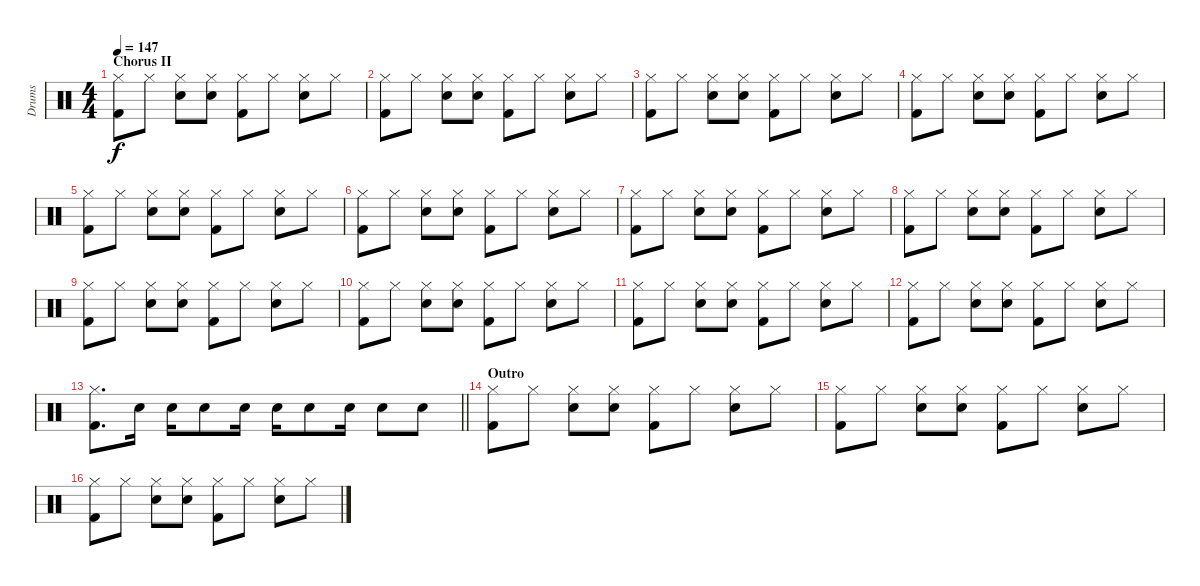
\track ("Drums" "Drums") {instrument percussion}
\staff {score}
\articulation defaults
\ts (4 4)
\section ("" "Chorus II")
\tempo 147
\clef neutral
\ks c
("Hi-Hat (closed)" "Kick (hit) 2").8{dy f} "Hi-Hat (closed)".8 ("Hi-Hat (closed)" "Snare (hit) 2").8 ("Hi-Hat (closed)" "Snare (hit) 2").8 ("Hi-Hat (closed)" "Kick (hit) 2").8 "Hi-Hat (closed)".8 ("Hi-Hat (closed)" "Snare (hit) 2").8 "Hi-Hat (closed)".8 |
("Hi-Hat (closed)" "Kick (hit) 2").8 "Hi-Hat (closed)".8 ("Hi-Hat (closed)" "Snare (hit) 2").8 ("Hi-Hat (closed)" "Snare (hit) 2").8 ("Hi-Hat (closed)" "Kick (hit) 2").8 "Hi-Hat (closed)".8 ("Hi-Hat (closed)" "Snare (hit) 2").8 "Hi-Hat (closed)".8 |
("Hi-Hat (closed)" "Kick (hit) 2").8 "Hi-Hat (closed)".8 ("Hi-Hat (closed)" "Snare (hit) 2").8 ("Hi-Hat (closed)" "Snare (hit) 2").8 ("Hi-Hat (closed)" "Kick (hit) 2").8 "Hi-Hat (closed)".8 ("Hi-Hat (closed)" "Snare (hit) 2").8 "Hi-Hat (closed)".8 |
("Hi-Hat (closed)" "Kick (hit) 2").8 "Hi-Hat (closed)".8 ("Hi-Hat (closed)" "Snare (hit) 2").8 ("Hi-Hat (closed)" "Snare (hit) 2").8 ("Hi-Hat (closed)" "Kick (hit) 2").8 "Hi-Hat (closed)".8 ("Hi-Hat (closed)" "Snare (hit) 2").8 "Hi-Hat (closed)".8 |
("Hi-Hat (closed)" "Kick (hit) 2").8 "Hi-Hat (closed)".8 ("Hi-Hat (closed)" "Snare (hit) 2").8 ("Hi-Hat (closed)" "Snare (hit) 2").8 ("Hi-Hat (closed)" "Kick (hit) 2").8 "Hi-Hat (closed)".8 ("Hi-Hat (closed)" "Snare (hit) 2").8 "Hi-Hat (closed)".8 |
("Hi-Hat (closed)" "Kick (hit) 2").8 "Hi-Hat (closed)".8 ("Hi-Hat (closed)" "Snare (hit) 2").8 ("Hi-Hat (closed)" "Snare (hit) 2").8 ("Hi-Hat (closed)" "Kick (hit) 2").8 "Hi-Hat (closed)".8 ("Hi-Hat (closed)" "Snare (hit) 2").8 "Hi-Hat (closed)".8 |
("Hi-Hat (closed)" "Kick (hit) 2").8 "Hi-Hat (closed)".8 ("Hi-Hat (closed)" "Snare (hit) 2").8 ("Hi-Hat (closed)" "Snare (hit) 2").8 ("Hi-Hat (closed)" "Kick (hit) 2").8 "Hi-Hat (closed)".8 ("Hi-Hat (closed)" "Snare (hit) 2").8 "Hi-Hat (closed)".8 |
("Hi-Hat (closed)" "Kick (hit) 2").8 "Hi-Hat (closed)".8 ("Hi-Hat (closed)" "Snare (hit) 2").8 ("Hi-Hat (closed)" "Snare (hit) 2").8 ("Hi-Hat (closed)" "Kick (hit) 2").8 "Hi-Hat (closed)".8 ("Hi-Hat (closed)" "Snare (hit) 2").8 "Hi-Hat (closed)".8 |
("Hi-Hat (closed)" "Kick (hit) 2").8 "Hi-Hat (closed)".8 ("Hi-Hat (closed)" "Snare (hit) 2").8 ("Hi-Hat (closed)" "Snare (hit) 2").8 ("Hi-Hat (closed)" "Kick (hit) 2").8 "Hi-Hat (closed)".8 ("Hi-Hat (closed)" "Snare (hit) 2").8 "Hi-Hat (closed)".8 |
("Hi-Hat (closed)" "Kick (hit) 2").8 "Hi-Hat (closed)".8 ("Hi-Hat (closed)" "Snare (hit) 2").8 ("Hi-Hat (closed)" "Snare (hit) 2").8 ("Hi-Hat (closed)" "Kick (hit) 2").8 "Hi-Hat (closed)".8 ("Hi-Hat (closed)" "Snare (hit) 2").8 "Hi-Hat (closed)".8 |
("Hi-Hat (closed)" "Kick (hit) 2").8 "Hi-Hat (closed)".8 ("Hi-Hat (closed)" "Snare (hit) 2").8 ("Hi-Hat (closed)" "Snare (hit) 2").8 ("Hi-Hat (closed)" "Kick (hit) 2").8 "Hi-Hat (closed)".8 ("Hi-Hat (closed)" "Snare (hit) 2").8 "Hi-Hat (closed)".8 |
("Hi-Hat (closed)" "Kick (hit) 2").8 "Hi-Hat (closed)".8 ("Hi-Hat (closed)" "Snare (hit) 2").8 ("Hi-Hat (closed)" "Snare (hit) 2").8 ("Hi-Hat (closed)" "Kick (hit) 2").8 "Hi-Hat (closed)".8 ("Hi-Hat (closed)" "Snare (hit) 2").8 "Hi-Hat (closed)".8 |
\barLineRight lightlight
("Hi-Hat (closed)" "Kick (hit) 2").8{d} "Snare (hit) 2".16 "Snare (hit) 2".16 "Snare (hit) 2".8 "Snare (hit) 2".16 "Snare (hit) 2".16 "Snare (hit) 2".8 "Snare (hit) 2".16 "Snare (hit) 2".8 "Snare (hit) 2".8 |
\section ("" "Outro")
("Hi-Hat (closed)" "Kick (hit) 2").8 "Hi-Hat (closed)".8 ("Hi-Hat (closed)" "Snare (hit) 2").8 ("Hi-Hat (closed)" "Snare (hit) 2").8 ("Hi-Hat (closed)" "Kick (hit) 2").8 "Hi-Hat (closed)".8 ("Hi-Hat (closed)" "Snare (hit) 2").8 "Hi-Hat (closed)".8 |
("Hi-Hat (closed)" "Kick (hit) 2").8 "Hi-Hat (closed)".8 ("Hi-Hat (closed)" "Snare (hit) 2").8 ("Hi-Hat (closed)" "Snare (hit) 2").8 ("Hi-Hat (closed)" "Kick (hit) 2").8 "Hi-Hat (closed)".8 ("Hi-Hat (closed)" "Snare (hit) 2").8 "Hi-Hat (closed)".8 |
("Hi-Hat (closed)" "Kick (hit) 2").8 "Hi-Hat (closed)".8 ("Hi-Hat (closed)" "Snare (hit) 2").8 ("Hi-Hat (closed)" "Snare (hit) 2").8 ("Hi-Hat (closed)" "Kick (hit) 2").8 "Hi-Hat (closed)".8 ("Hi-Hat (closed)" "Snare (hit) 2").8 "Hi-Hat (closed)".8
